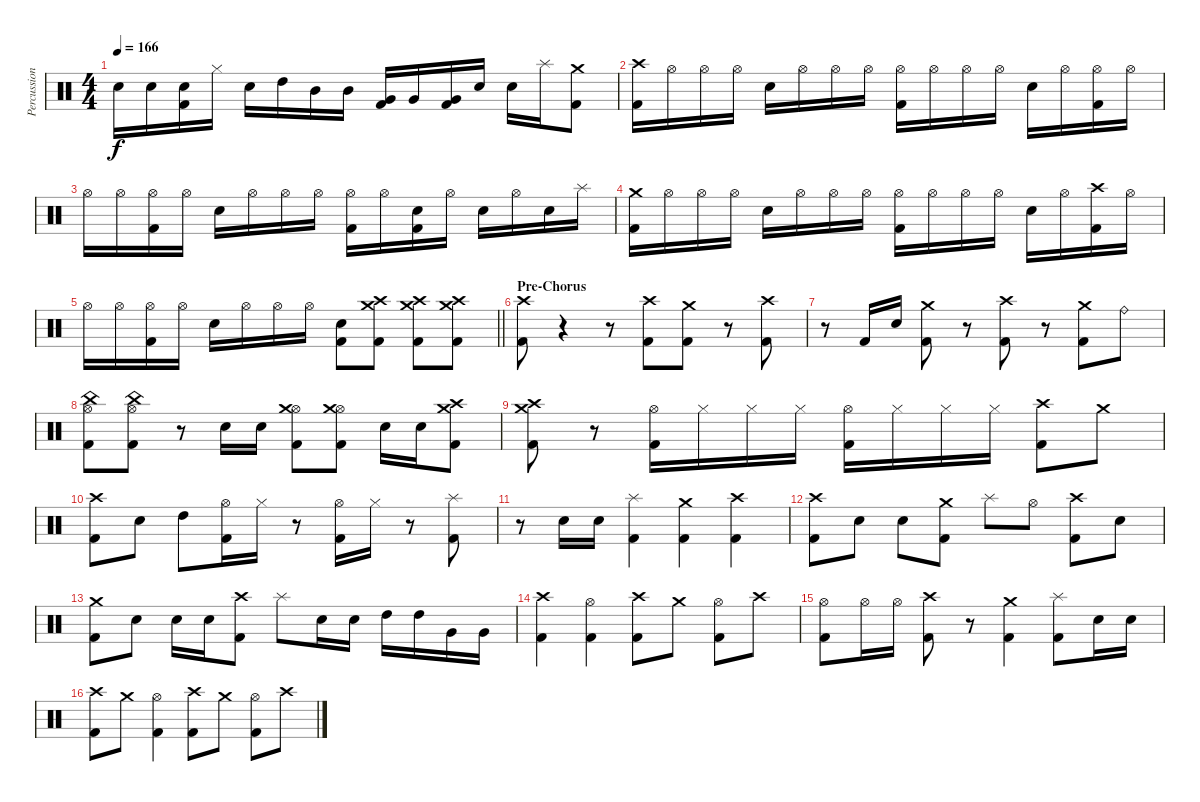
\track ("Percussion" "Percussion") {instrument percussion}
\staff {score}
\articulation defaults
\ts (4 4)
\tempo 166
\clef neutral
\ks c "Electric Snare (hit)".16{dy f} "Electric Snare (hit)".16
("Electric Snare (hit)" "Kick (hit) 2").16 "Hi-Hat (closed)".16 "Electric Snare (hit)".16 "High Tom (hit)".16 "Mid Tom (hit)".16 "Mid Tom (hit)".16 ("Very Low Tom (hit)" "Kick (hit) 2").16 "Very Low Tom (hit)".16 ("Very Low Tom (hit)" "Kick (hit) 2").16 "Electric Snare (hit)".16 "Electric Snare (hit)".16 "Splash (hit)".16 ("Crash medium (hit)" "Kick (hit) 2").8 |
("Crash high (hit)" "Kick (hit) 2").16 "Hi-Hat (open)".16 "Hi-Hat (open)".16 "Hi-Hat (open)".16 "Electric Snare (hit)".16 "Hi-Hat (open)".16 "Hi-Hat (open)".16 "Hi-Hat (open)".16 ("Hi-Hat (open)" "Kick (hit) 2").16 "Hi-Hat (open)".16 "Hi-Hat (open)".16 "Hi-Hat (open)".16 "Electric Snare (hit)".16 "Hi-Hat (open)".16 ("Hi-Hat (open)" "Kick (hit) 2").16 "Hi-Hat (open)".16 |
"Hi-Hat (open)".16 "Hi-Hat (open)".16 ("Hi-Hat (open)" "Kick (hit) 2").16 "Hi-Hat (open)".16 "Electric Snare (hit)".16 "Hi-Hat (open)".16 "Hi-Hat (open)".16 "Hi-Hat (open)".16 ("Hi-Hat (open)" "Kick (hit) 2").16 "Hi-Hat (open)".16 ("Electric Snare (hit)" "Kick (hit) 2").16 "Hi-Hat (open)".16 "Electric Snare (hit)".16 "Hi-Hat (open)".16 "Electric Snare (hit)".16 "Splash (hit)".16 |
("Crash medium (hit)" "Kick (hit) 2").16 "Hi-Hat (open)".16 "Hi-Hat (open)".16 "Hi-Hat (open)".16 "Electric Snare (hit)".16 "Hi-Hat (open)".16 "Hi-Hat (open)".16 "Hi-Hat (open)".16 ("Hi-Hat (open)" "Kick (hit) 2").16 "Hi-Hat (open)".16 "Hi-Hat (open)".16 "Hi-Hat (open)".16 "Electric Snare (hit)".16 "Hi-Hat (open)".16 ("Crash high (hit)" "Kick (hit) 2").16 "Hi-Hat (open)".16 |
\barLineRight lightlight "Hi-Hat (open)".16 "Hi-Hat (open)".16
("Hi-Hat (open)" "Kick (hit) 2").16 "Hi-Hat (open)".16 "Electric Snare (hit)".16 "Hi-Hat (open)".16 "Hi-Hat (open)".16 "Hi-Hat (open)".16 ("Electric Snare (hit)" "Kick (hit) 2").8 ("Crash medium (hit)" "Crash high (hit)" "Kick (hit) 2").8 ("Crash medium (hit)" "Crash high (hit)" "Kick (hit) 2").8 ("Crash medium (hit)" "Crash high (hit)" "Kick (hit) 2").8 |
\section ("" "Pre-Chorus")
("Crash high (hit)" "Kick (hit) 2").8 r.4 r.8 ("Crash high (hit)" "Kick (hit) 2").8 ("Crash medium (hit)" "Kick (hit) 2").8 r.8 ("Crash high (hit)" "Kick (hit) 2").8 |
r.8 "Kick (hit) 2".16 "Electric Snare (hit)".16 ("Crash medium (hit)" "Kick (hit) 2").8 r.8 ("Crash high (hit)" "Kick (hit) 2").8 r.8 ("Crash medium (hit)" "Kick (hit) 2").8 "Ride (bell)".8 |
("Hi-Hat (open)" "China (hit)" "Kick (hit) 2").8 ("Hi-Hat (open)" "China (hit)" "Kick (hit) 2").8 r.8 "Electric Snare (hit)".16 "Electric Snare (hit)".16 ("Hi-Hat (open)" "Crash medium (hit)" "Kick (hit) 2").8 ("Hi-Hat (open)" "Crash medium (hit)" "Kick (hit) 2").8 "Electric Snare (hit)".16 "Electric Snare (hit)".16 ("Crash high (hit)" "Crash medium (hit)" "Kick (hit) 2").8 |
("Crash high (hit)" "Crash medium (hit)" "Kick (hit) 2").8 r.8 ("Hi-Hat (open)" "Kick (hit) 2").16 "Hi-Hat (closed)".16 "Hi-Hat (closed)".16 "Hi-Hat (closed)".16 ("Hi-Hat (open)" "Kick (hit) 2").16 "Hi-Hat (closed)".16 "Hi-Hat (closed)".16 "Hi-Hat (closed)".16 ("Crash high (hit)" "Kick (hit) 2").8 "Crash medium (hit)".8 |
("Crash high (hit)" "Kick (hit) 2").8 "Electric Snare (hit)".8 "High Tom (hit)".8 ("Hi-Hat (open)" "Kick (hit) 2").16 "Hi-Hat (closed)".16 r.8 ("Hi-Hat (open)" "Kick (hit) 2").16 "Hi-Hat (closed)".16 r.8 ("Splash (hit)" "Kick (hit) 2").8 |
r.8 "Electric Snare (hit)".16 "Electric Snare (hit)".16 ("Splash (hit)" "Kick (hit) 2").4 ("Crash medium (hit)" "Kick (hit) 2").4 ("Crash high (hit)" "Kick (hit) 2").4 |
("Crash high (hit)" "Kick (hit) 2").8 "Electric Snare (hit)".8 "Electric Snare (hit)".8 ("Crash medium (hit)" "Kick (hit) 2").8 "Splash (hit)".8 "Hi-Hat (open)".8 ("Crash high (hit)" "Kick (hit) 2").8 "Electric Snare (hit)".8 |
("Crash medium (hit)" "Kick (hit) 2").8 "Electric Snare (hit)".8 "Electric Snare (hit)".16 "Electric Snare (hit)".16 ("Crash high (hit)" "Kick (hit) 2").8 "Splash (hit)".8 "Electric Snare (hit)".16 "Electric Snare (hit)".16 "High Tom (hit)".16 "High Tom (hit)".16 "Very Low Tom (hit)".16 "Very Low Tom (hit)".16 |
("Crash high (hit)" "Kick (hit) 2").4 ("Hi-Hat (open)" "Kick (hit) 2").4 ("Crash high (hit)" "Kick (hit) 2").8 "Crash medium (hit)".8 ("Hi-Hat (open)" "Kick (hit) 2").8 "Crash high (hit)".8 |
("Hi-Hat (open)" "Kick (hit) 2").8 "Hi-Hat (open)".16 "Hi-Hat (open)".16 ("Crash high (hit)" "Kick (hit) 2").8 r.8 ("Crash medium (hit)" "Kick (hit) 2").4 ("Splash (hit)" "Kick (hit) 2").8 "Electric Snare (hit)".16 "Electric Snare (hit)".16 |
("Crash high (hit)" "Kick (hit) 2").8 "Crash medium (hit)".8 ("Hi-Hat (open)" "Kick (hit) 2").4 ("Crash high (hit)" "Kick (hit) 2").8 "Crash medium (hit)".8 ("Hi-Hat (open)" "Kick (hit) 2").8 "Crash high (hit)".8
